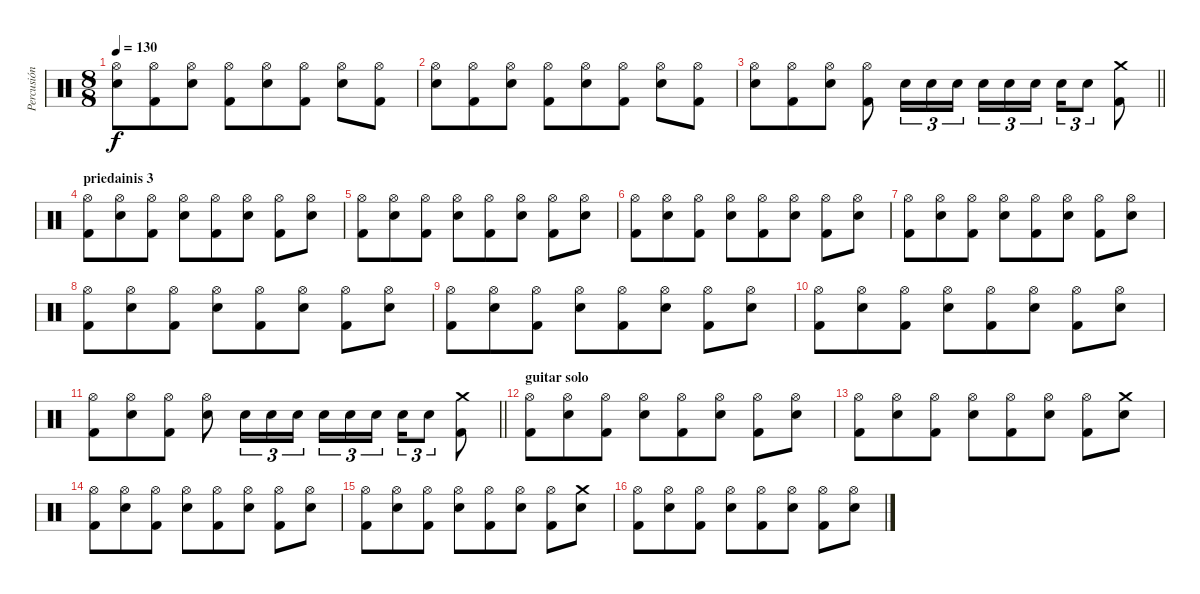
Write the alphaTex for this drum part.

\track ("Percusión" "Percusión") {instrument percussion}
\staff {score}
\articulation defaults
\ts (8 8)
\tempo 130
\clef neutral
\ks c
("Hi-Hat (open)" "Snare (hit) 2").8{dy f} ("Hi-Hat (open)" "Kick (hit) 2").8 ("Hi-Hat (open)" "Snare (hit) 2").8 ("Hi-Hat (open)" "Kick (hit) 2").8 ("Hi-Hat (open)" "Snare (hit) 2").8 ("Hi-Hat (open)" "Kick (hit) 2").8 ("Hi-Hat (open)" "Snare (hit) 2").8 ("Hi-Hat (open)" "Kick (hit) 2").8 |
("Hi-Hat (open)" "Snare (hit) 2").8 ("Hi-Hat (open)" "Kick (hit) 2").8 ("Hi-Hat (open)" "Snare (hit) 2").8 ("Hi-Hat (open)" "Kick (hit) 2").8 ("Hi-Hat (open)" "Snare (hit) 2").8 ("Hi-Hat (open)" "Kick (hit) 2").8 ("Hi-Hat (open)" "Snare (hit) 2").8 ("Hi-Hat (open)" "Kick (hit) 2").8 |
\barLineRight lightlight
("Hi-Hat (open)" "Snare (hit) 2").8 ("Hi-Hat (open)" "Kick (hit) 2").8 ("Hi-Hat (open)" "Snare (hit) 2").8 ("Hi-Hat (open)" "Kick (hit) 2").8 "Snare (hit) 2".16{tu (3 2)} "Snare (hit) 2".16{tu (3 2)} "Snare (hit) 2".16{tu (3 2)} "Snare (hit) 2".16{tu (3 2)} "Snare (hit) 2".16{tu (3 2)} "Snare (hit) 2".16{tu (3 2)} "Snare (hit) 2".16{tu (3 2)} "Snare (hit) 2".8{tu (3 2)} ("Crash medium (hit)" "Kick (hit) 2").8 |
\section ("" "priedainis 3")
("Hi-Hat (open)" "Kick (hit) 2").8 ("Hi-Hat (open)" "Snare (hit) 2").8 ("Hi-Hat (open)" "Kick (hit) 2").8 ("Hi-Hat (open)" "Snare (hit) 2").8 ("Hi-Hat (open)" "Kick (hit) 2").8 ("Hi-Hat (open)" "Snare (hit) 2").8 ("Hi-Hat (open)" "Kick (hit) 2").8 ("Hi-Hat (open)" "Snare (hit) 2").8 |
("Hi-Hat (open)" "Kick (hit) 2").8 ("Hi-Hat (open)" "Snare (hit) 2").8 ("Hi-Hat (open)" "Kick (hit) 2").8 ("Hi-Hat (open)" "Snare (hit) 2").8 ("Hi-Hat (open)" "Kick (hit) 2").8 ("Hi-Hat (open)" "Snare (hit) 2").8 ("Hi-Hat (open)" "Kick (hit) 2").8 ("Hi-Hat (open)" "Snare (hit) 2").8 |
("Hi-Hat (open)" "Kick (hit) 2").8 ("Hi-Hat (open)" "Snare (hit) 2").8 ("Hi-Hat (open)" "Kick (hit) 2").8 ("Hi-Hat (open)" "Snare (hit) 2").8 ("Hi-Hat (open)" "Kick (hit) 2").8 ("Hi-Hat (open)" "Snare (hit) 2").8 ("Hi-Hat (open)" "Kick (hit) 2").8 ("Hi-Hat (open)" "Snare (hit) 2").8 |
("Hi-Hat (open)" "Kick (hit) 2").8 ("Hi-Hat (open)" "Snare (hit) 2").8 ("Hi-Hat (open)" "Kick (hit) 2").8 ("Hi-Hat (open)" "Snare (hit) 2").8 ("Hi-Hat (open)" "Kick (hit) 2").8 ("Hi-Hat (open)" "Snare (hit) 2").8 ("Hi-Hat (open)" "Kick (hit) 2").8 ("Hi-Hat (open)" "Snare (hit) 2").8 |
("Hi-Hat (open)" "Kick (hit) 2").8 ("Hi-Hat (open)" "Snare (hit) 2").8 ("Hi-Hat (open)" "Kick (hit) 2").8 ("Hi-Hat (open)" "Snare (hit) 2").8 ("Hi-Hat (open)" "Kick (hit) 2").8 ("Hi-Hat (open)" "Snare (hit) 2").8 ("Hi-Hat (open)" "Kick (hit) 2").8 ("Hi-Hat (open)" "Snare (hit) 2").8 |
("Hi-Hat (open)" "Kick (hit) 2").8 ("Hi-Hat (open)" "Snare (hit) 2").8 ("Hi-Hat (open)" "Kick (hit) 2").8 ("Hi-Hat (open)" "Snare (hit) 2").8 ("Hi-Hat (open)" "Kick (hit) 2").8 ("Hi-Hat (open)" "Snare (hit) 2").8 ("Hi-Hat (open)" "Kick (hit) 2").8 ("Hi-Hat (open)" "Snare (hit) 2").8 |
("Hi-Hat (open)" "Kick (hit) 2").8 ("Hi-Hat (open)" "Snare (hit) 2").8 ("Hi-Hat (open)" "Kick (hit) 2").8 ("Hi-Hat (open)" "Snare (hit) 2").8 ("Hi-Hat (open)" "Kick (hit) 2").8 ("Hi-Hat (open)" "Snare (hit) 2").8 ("Hi-Hat (open)" "Kick (hit) 2").8 ("Hi-Hat (open)" "Snare (hit) 2").8 |
\barLineRight lightlight
("Hi-Hat (open)" "Kick (hit) 2").8 ("Hi-Hat (open)" "Snare (hit) 2").8 ("Hi-Hat (open)" "Kick (hit) 2").8 ("Hi-Hat (open)" "Snare (hit) 2").8 "Snare (hit) 2".16{tu (3 2)} "Snare (hit) 2".16{tu (3 2)} "Snare (hit) 2".16{tu (3 2)} "Snare (hit) 2".16{tu (3 2)} "Snare (hit) 2".16{tu (3 2)} "Snare (hit) 2".16{tu (3 2)} "Snare (hit) 2".16{tu (3 2)} "Snare (hit) 2".8{tu (3 2)} ("Crash medium (hit)" "Kick (hit) 2").8 |
\section ("" "guitar solo")
("Hi-Hat (open)" "Kick (hit) 2").8 ("Hi-Hat (open)" "Snare (hit) 2").8 ("Hi-Hat (open)" "Kick (hit) 2").8 ("Hi-Hat (open)" "Snare (hit) 2").8 ("Hi-Hat (open)" "Kick (hit) 2").8 ("Hi-Hat (open)" "Snare (hit) 2").8 ("Hi-Hat (open)" "Kick (hit) 2").8 ("Hi-Hat (open)" "Snare (hit) 2").8 |
("Hi-Hat (open)" "Kick (hit) 2").8 ("Hi-Hat (open)" "Snare (hit) 2").8 ("Hi-Hat (open)" "Kick (hit) 2").8 ("Hi-Hat (open)" "Snare (hit) 2").8 ("Hi-Hat (open)" "Kick (hit) 2").8 ("Hi-Hat (open)" "Snare (hit) 2").8 ("Hi-Hat (open)" "Kick (hit) 2").8 ("Crash medium (hit)" "Snare (hit) 2").8 |
("Hi-Hat (open)" "Kick (hit) 2").8 ("Hi-Hat (open)" "Snare (hit) 2").8 ("Hi-Hat (open)" "Kick (hit) 2").8 ("Hi-Hat (open)" "Snare (hit) 2").8 ("Hi-Hat (open)" "Kick (hit) 2").8 ("Hi-Hat (open)" "Snare (hit) 2").8 ("Hi-Hat (open)" "Kick (hit) 2").8 ("Hi-Hat (open)" "Snare (hit) 2").8 |
("Hi-Hat (open)" "Kick (hit) 2").8 ("Hi-Hat (open)" "Snare (hit) 2").8 ("Hi-Hat (open)" "Kick (hit) 2").8 ("Hi-Hat (open)" "Snare (hit) 2").8 ("Hi-Hat (open)" "Kick (hit) 2").8 ("Hi-Hat (open)" "Snare (hit) 2").8 ("Hi-Hat (open)" "Kick (hit) 2").8 ("Crash medium (hit)" "Snare (hit) 2").8 |
("Hi-Hat (open)" "Kick (hit) 2").8 ("Hi-Hat (open)" "Snare (hit) 2").8 ("Hi-Hat (open)" "Kick (hit) 2").8 ("Hi-Hat (open)" "Snare (hit) 2").8 ("Hi-Hat (open)" "Kick (hit) 2").8 ("Hi-Hat (open)" "Snare (hit) 2").8 ("Hi-Hat (open)" "Kick (hit) 2").8 ("Hi-Hat (open)" "Snare (hit) 2").8
